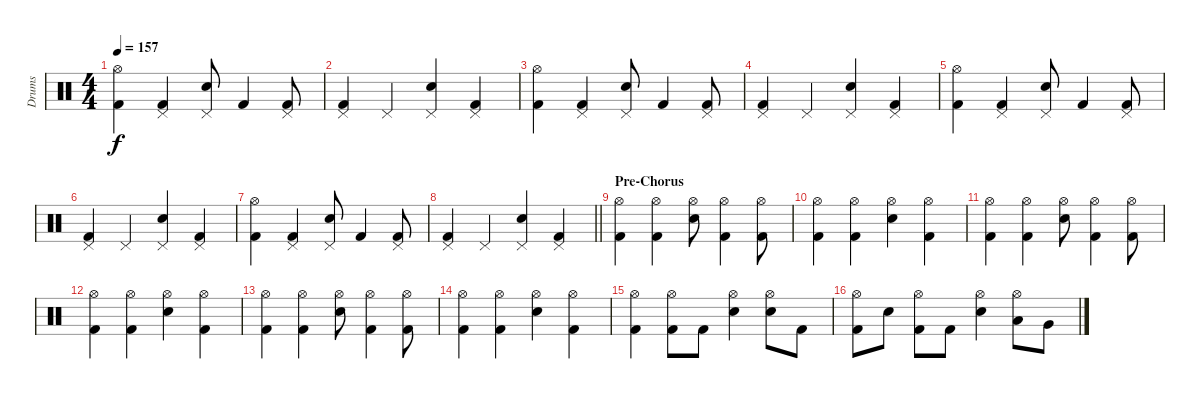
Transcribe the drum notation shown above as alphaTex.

\track ("Drums" "Drums") {instrument percussion}
\staff {score}
\articulation defaults
\ts (4 4)
\tempo 157
\clef neutral
\ks c
("Hi-Hat (open)" "Kick (hit) 2").4{dy f} ("Pedal Hi-Hat (hit)" "Kick (hit) 2").4 ("Pedal Hi-Hat (hit)" "Electric Snare (hit)").8 "Kick (hit) 2".4 ("Pedal Hi-Hat (hit)" "Kick (hit) 2").8 |
("Pedal Hi-Hat (hit)" "Kick (hit) 2").4 "Pedal Hi-Hat (hit)".4 ("Pedal Hi-Hat (hit)" "Electric Snare (hit)").4 ("Pedal Hi-Hat (hit)" "Kick (hit) 2").4 |
("Hi-Hat (open)" "Kick (hit) 2").4 ("Pedal Hi-Hat (hit)" "Kick (hit) 2").4 ("Pedal Hi-Hat (hit)" "Electric Snare (hit)").8 "Kick (hit) 2".4 ("Pedal Hi-Hat (hit)" "Kick (hit) 2").8 |
("Pedal Hi-Hat (hit)" "Kick (hit) 2").4 "Pedal Hi-Hat (hit)".4 ("Pedal Hi-Hat (hit)" "Electric Snare (hit)").4 ("Pedal Hi-Hat (hit)" "Kick (hit) 2").4 |
("Hi-Hat (open)" "Kick (hit) 2").4 ("Pedal Hi-Hat (hit)" "Kick (hit) 2").4 ("Pedal Hi-Hat (hit)" "Electric Snare (hit)").8 "Kick (hit) 2".4 ("Pedal Hi-Hat (hit)" "Kick (hit) 2").8 |
("Pedal Hi-Hat (hit)" "Kick (hit) 2").4 "Pedal Hi-Hat (hit)".4 ("Pedal Hi-Hat (hit)" "Electric Snare (hit)").4 ("Pedal Hi-Hat (hit)" "Kick (hit) 2").4 |
("Hi-Hat (open)" "Kick (hit) 2").4 ("Pedal Hi-Hat (hit)" "Kick (hit) 2").4 ("Pedal Hi-Hat (hit)" "Electric Snare (hit)").8 "Kick (hit) 2".4 ("Pedal Hi-Hat (hit)" "Kick (hit) 2").8 |
\barLineRight lightlight
("Pedal Hi-Hat (hit)" "Kick (hit) 2").4 "Pedal Hi-Hat (hit)".4 ("Pedal Hi-Hat (hit)" "Electric Snare (hit)").4 ("Pedal Hi-Hat (hit)" "Kick (hit) 2").4 |
\section ("" "Pre-Chorus")
("Hi-Hat (open)" "Kick (hit) 2").4 ("Hi-Hat (open)" "Kick (hit) 2").4 ("Hi-Hat (open)" "Electric Snare (hit)").8 ("Hi-Hat (open)" "Kick (hit) 2").4 ("Hi-Hat (open)" "Kick (hit) 2").8 |
("Hi-Hat (open)" "Kick (hit) 2").4 ("Hi-Hat (open)" "Kick (hit) 2").4 ("Hi-Hat (open)" "Electric Snare (hit)").4 ("Hi-Hat (open)" "Kick (hit) 2").4 |
("Hi-Hat (open)" "Kick (hit) 2").4 ("Hi-Hat (open)" "Kick (hit) 2").4 ("Hi-Hat (open)" "Electric Snare (hit)").8 ("Hi-Hat (open)" "Kick (hit) 2").4 ("Hi-Hat (open)" "Kick (hit) 2").8 |
("Hi-Hat (open)" "Kick (hit) 2").4 ("Hi-Hat (open)" "Kick (hit) 2").4 ("Hi-Hat (open)" "Electric Snare (hit)").4 ("Hi-Hat (open)" "Kick (hit) 2").4 |
("Hi-Hat (open)" "Kick (hit) 2").4 ("Hi-Hat (open)" "Kick (hit) 2").4 ("Hi-Hat (open)" "Electric Snare (hit)").8 ("Hi-Hat (open)" "Kick (hit) 2").4 ("Hi-Hat (open)" "Kick (hit) 2").8 |
("Hi-Hat (open)" "Kick (hit) 2").4 ("Hi-Hat (open)" "Kick (hit) 2").4 ("Hi-Hat (open)" "Electric Snare (hit)").4 ("Hi-Hat (open)" "Kick (hit) 2").4 |
("Hi-Hat (open)" "Kick (hit) 2").4 ("Hi-Hat (open)" "Kick (hit) 2").8 "Kick (hit) 2".8 ("Hi-Hat (open)" "Electric Snare (hit)").4 ("Hi-Hat (open)" "Electric Snare (hit)").8 "Kick (hit) 2".8 |
("Hi-Hat (open)" "Kick (hit) 2").8 "Electric Snare (hit)".8 ("Hi-Hat (open)" "Kick (hit) 2").8 "Kick (hit) 2".8 ("Hi-Hat (open)" "Electric Snare (hit)").4 ("Hi-Hat (open)" "Low Tom (hit)").8 "Very Low Tom (hit)".8
